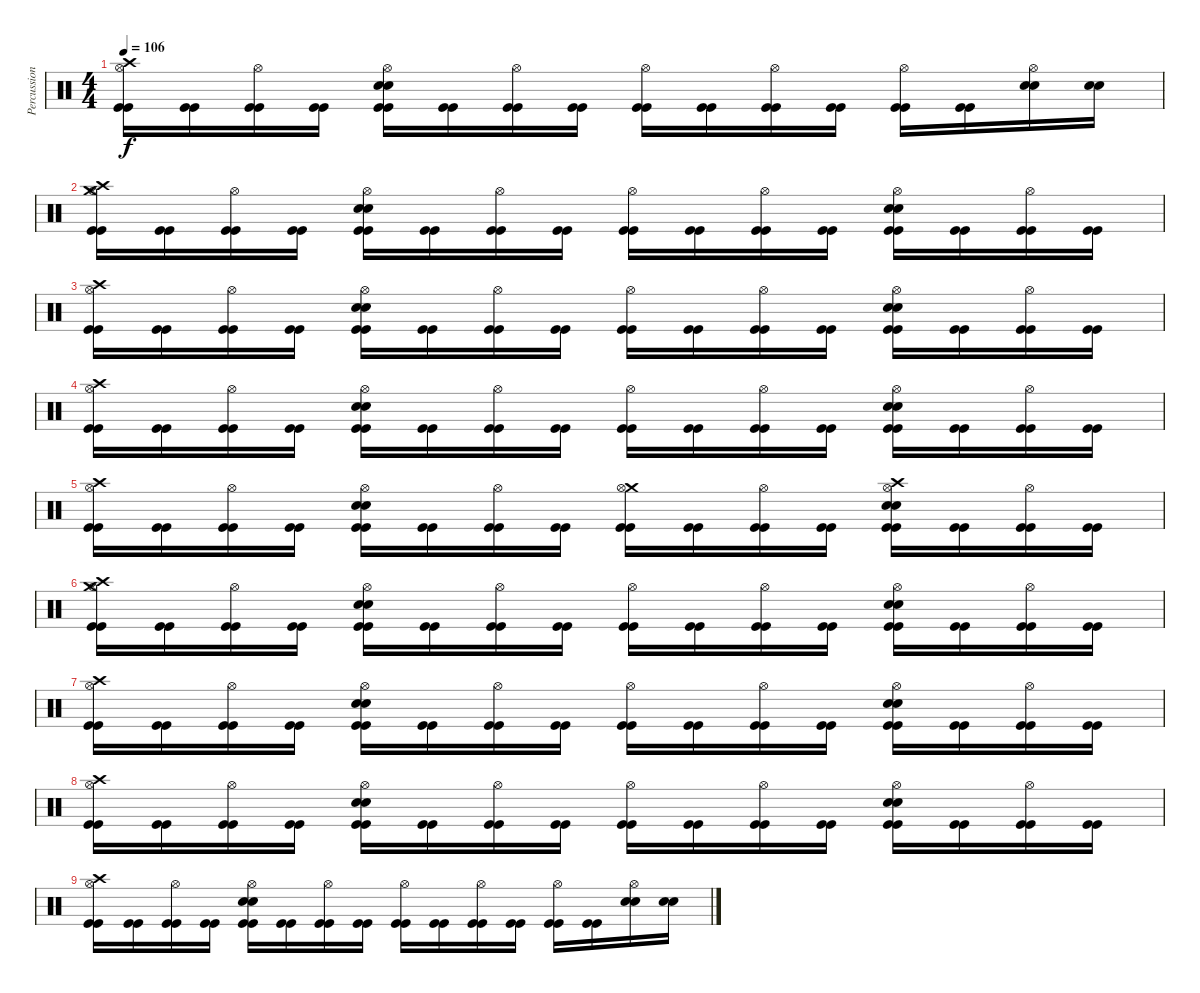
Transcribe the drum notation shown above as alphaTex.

\track ("Percussion" "Percussion") {instrument percussion}
\staff {score}
\articulation defaults
\ts (4 4)
\tempo 106
\clef neutral
\ks c
("Crash high (hit)" "Hi-Hat (open)" "Kick (hit)" "Kick (hit)").16{dy f} ("Kick (hit)" "Kick (hit)").16 ("Hi-Hat (open)" "Kick (hit)" "Kick (hit)").16 ("Kick (hit)" "Kick (hit)").16 ("Snare (hit) 2" "Snare (hit) 2" "Hi-Hat (open)" "Kick (hit)" "Kick (hit)").16 ("Kick (hit)" "Kick (hit)").16 ("Hi-Hat (open)" "Kick (hit)" "Kick (hit)").16 ("Kick (hit)" "Kick (hit)").16 ("Hi-Hat (open)" "Kick (hit)" "Kick (hit)").16 ("Kick (hit)" "Kick (hit)").16 ("Hi-Hat (open)" "Kick (hit)" "Kick (hit)").16 ("Kick (hit)" "Kick (hit)").16 ("Hi-Hat (open)" "Kick (hit)" "Kick (hit)").16 ("Kick (hit)" "Kick (hit)").16 ("Hi-Hat (open)" "Snare (hit) 2" "Snare (hit) 2").16 ("Snare (hit) 2" "Snare (hit) 2").16 |
("Crash medium (hit)" "Crash high (hit)" "Hi-Hat (open)" "Kick (hit)" "Kick (hit)").16{volume 11} ("Kick (hit)" "Kick (hit)").16 ("Hi-Hat (open)" "Kick (hit)" "Kick (hit)").16 ("Kick (hit)" "Kick (hit)").16 ("Snare (hit) 2" "Snare (hit) 2" "Hi-Hat (open)" "Kick (hit)" "Kick (hit)").16 ("Kick (hit)" "Kick (hit)").16 ("Hi-Hat (open)" "Kick (hit)" "Kick (hit)").16 ("Kick (hit)" "Kick (hit)").16 ("Hi-Hat (open)" "Kick (hit)" "Kick (hit)").16 ("Kick (hit)" "Kick (hit)").16 ("Hi-Hat (open)" "Kick (hit)" "Kick (hit)").16 ("Kick (hit)" "Kick (hit)").16 ("Snare (hit) 2" "Snare (hit) 2" "Hi-Hat (open)" "Kick (hit)" "Kick (hit)").16 ("Kick (hit)" "Kick (hit)").16 ("Hi-Hat (open)" "Kick (hit)" "Kick (hit)").16 ("Kick (hit)" "Kick (hit)").16 |
("Crash high (hit)" "Hi-Hat (open)" "Kick (hit)" "Kick (hit)").16{volume 10} ("Kick (hit)" "Kick (hit)").16 ("Hi-Hat (open)" "Kick (hit)" "Kick (hit)").16 ("Kick (hit)" "Kick (hit)").16 ("Snare (hit) 2" "Snare (hit) 2" "Hi-Hat (open)" "Kick (hit)" "Kick (hit)").16 ("Kick (hit)" "Kick (hit)").16 ("Hi-Hat (open)" "Kick (hit)" "Kick (hit)").16 ("Kick (hit)" "Kick (hit)").16 ("Hi-Hat (open)" "Kick (hit)" "Kick (hit)").16 ("Kick (hit)" "Kick (hit)").16 ("Hi-Hat (open)" "Kick (hit)" "Kick (hit)").16 ("Kick (hit)" "Kick (hit)").16 ("Snare (hit) 2" "Snare (hit) 2" "Hi-Hat (open)" "Kick (hit)" "Kick (hit)").16 ("Kick (hit)" "Kick (hit)").16 ("Hi-Hat (open)" "Kick (hit)" "Kick (hit)").16 ("Kick (hit)" "Kick (hit)").16 |
("Crash high (hit)" "Hi-Hat (open)" "Kick (hit)" "Kick (hit)").16{volume 8} ("Kick (hit)" "Kick (hit)").16 ("Hi-Hat (open)" "Kick (hit)" "Kick (hit)").16 ("Kick (hit)" "Kick (hit)").16 ("Snare (hit) 2" "Snare (hit) 2" "Hi-Hat (open)" "Kick (hit)" "Kick (hit)").16 ("Kick (hit)" "Kick (hit)").16 ("Hi-Hat (open)" "Kick (hit)" "Kick (hit)").16 ("Kick (hit)" "Kick (hit)").16 ("Hi-Hat (open)" "Kick (hit)" "Kick (hit)").16 ("Kick (hit)" "Kick (hit)").16 ("Hi-Hat (open)" "Kick (hit)" "Kick (hit)").16 ("Kick (hit)" "Kick (hit)").16 ("Snare (hit) 2" "Snare (hit) 2" "Hi-Hat (open)" "Kick (hit)" "Kick (hit)").16 ("Kick (hit)" "Kick (hit)").16 ("Hi-Hat (open)" "Kick (hit)" "Kick (hit)").16 ("Kick (hit)" "Kick (hit)").16 |
("Crash high (hit)" "Hi-Hat (open)" "Kick (hit)" "Kick (hit)").16{volume 6} ("Kick (hit)" "Kick (hit)").16 ("Hi-Hat (open)" "Kick (hit)" "Kick (hit)").16 ("Kick (hit)" "Kick (hit)").16 ("Snare (hit) 2" "Snare (hit) 2" "Hi-Hat (open)" "Kick (hit)" "Kick (hit)").16 ("Kick (hit)" "Kick (hit)").16 ("Hi-Hat (open)" "Kick (hit)" "Kick (hit)").16 ("Kick (hit)" "Kick (hit)").16 ("Crash medium (hit)" "Hi-Hat (open)" "Kick (hit)" "Kick (hit)").16 ("Kick (hit)" "Kick (hit)").16 ("Hi-Hat (open)" "Kick (hit)" "Kick (hit)").16 ("Kick (hit)" "Kick (hit)").16 ("Crash high (hit)" "Snare (hit) 2" "Snare (hit) 2" "Hi-Hat (open)" "Kick (hit)" "Kick (hit)").16 ("Kick (hit)" "Kick (hit)").16 ("Hi-Hat (open)" "Kick (hit)" "Kick (hit)").16 ("Kick (hit)" "Kick (hit)").16 |
("Crash medium (hit)" "Crash high (hit)" "Hi-Hat (open)" "Kick (hit)" "Kick (hit)").16{volume 5} ("Kick (hit)" "Kick (hit)").16 ("Hi-Hat (open)" "Kick (hit)" "Kick (hit)").16 ("Kick (hit)" "Kick (hit)").16 ("Snare (hit) 2" "Snare (hit) 2" "Hi-Hat (open)" "Kick (hit)" "Kick (hit)").16 ("Kick (hit)" "Kick (hit)").16 ("Hi-Hat (open)" "Kick (hit)" "Kick (hit)").16 ("Kick (hit)" "Kick (hit)").16 ("Hi-Hat (open)" "Kick (hit)" "Kick (hit)").16 ("Kick (hit)" "Kick (hit)").16 ("Hi-Hat (open)" "Kick (hit)" "Kick (hit)").16 ("Kick (hit)" "Kick (hit)").16 ("Snare (hit) 2" "Snare (hit) 2" "Hi-Hat (open)" "Kick (hit)" "Kick (hit)").16 ("Kick (hit)" "Kick (hit)").16 ("Hi-Hat (open)" "Kick (hit)" "Kick (hit)").16 ("Kick (hit)" "Kick (hit)").16 |
("Crash high (hit)" "Hi-Hat (open)" "Kick (hit)" "Kick (hit)").16{volume 3} ("Kick (hit)" "Kick (hit)").16 ("Hi-Hat (open)" "Kick (hit)" "Kick (hit)").16 ("Kick (hit)" "Kick (hit)").16 ("Snare (hit) 2" "Snare (hit) 2" "Hi-Hat (open)" "Kick (hit)" "Kick (hit)").16 ("Kick (hit)" "Kick (hit)").16 ("Hi-Hat (open)" "Kick (hit)" "Kick (hit)").16 ("Kick (hit)" "Kick (hit)").16 ("Hi-Hat (open)" "Kick (hit)" "Kick (hit)").16 ("Kick (hit)" "Kick (hit)").16 ("Hi-Hat (open)" "Kick (hit)" "Kick (hit)").16 ("Kick (hit)" "Kick (hit)").16 ("Snare (hit) 2" "Snare (hit) 2" "Hi-Hat (open)" "Kick (hit)" "Kick (hit)").16 ("Kick (hit)" "Kick (hit)").16 ("Hi-Hat (open)" "Kick (hit)" "Kick (hit)").16 ("Kick (hit)" "Kick (hit)").16 |
("Crash high (hit)" "Hi-Hat (open)" "Kick (hit)" "Kick (hit)").16{volume 2} ("Kick (hit)" "Kick (hit)").16 ("Hi-Hat (open)" "Kick (hit)" "Kick (hit)").16 ("Kick (hit)" "Kick (hit)").16 ("Snare (hit) 2" "Snare (hit) 2" "Hi-Hat (open)" "Kick (hit)" "Kick (hit)").16 ("Kick (hit)" "Kick (hit)").16 ("Hi-Hat (open)" "Kick (hit)" "Kick (hit)").16 ("Kick (hit)" "Kick (hit)").16 ("Hi-Hat (open)" "Kick (hit)" "Kick (hit)").16 ("Kick (hit)" "Kick (hit)").16 ("Hi-Hat (open)" "Kick (hit)" "Kick (hit)").16 ("Kick (hit)" "Kick (hit)").16 ("Snare (hit) 2" "Snare (hit) 2" "Hi-Hat (open)" "Kick (hit)" "Kick (hit)").16 ("Kick (hit)" "Kick (hit)").16 ("Hi-Hat (open)" "Kick (hit)" "Kick (hit)").16 ("Kick (hit)" "Kick (hit)").16 |
("Crash high (hit)" "Hi-Hat (open)" "Kick (hit)" "Kick (hit)").16{volume 0} ("Kick (hit)" "Kick (hit)").16 ("Hi-Hat (open)" "Kick (hit)" "Kick (hit)").16 ("Kick (hit)" "Kick (hit)").16 ("Snare (hit) 2" "Snare (hit) 2" "Hi-Hat (open)" "Kick (hit)" "Kick (hit)").16 ("Kick (hit)" "Kick (hit)").16 ("Hi-Hat (open)" "Kick (hit)" "Kick (hit)").16 ("Kick (hit)" "Kick (hit)").16 ("Hi-Hat (open)" "Kick (hit)" "Kick (hit)").16 ("Kick (hit)" "Kick (hit)").16 ("Hi-Hat (open)" "Kick (hit)" "Kick (hit)").16 ("Kick (hit)" "Kick (hit)").16 ("Hi-Hat (open)" "Kick (hit)" "Kick (hit)").16 ("Kick (hit)" "Kick (hit)").16 ("Hi-Hat (open)" "Snare (hit) 2" "Snare (hit) 2").16 ("Snare (hit) 2" "Snare (hit) 2").16
